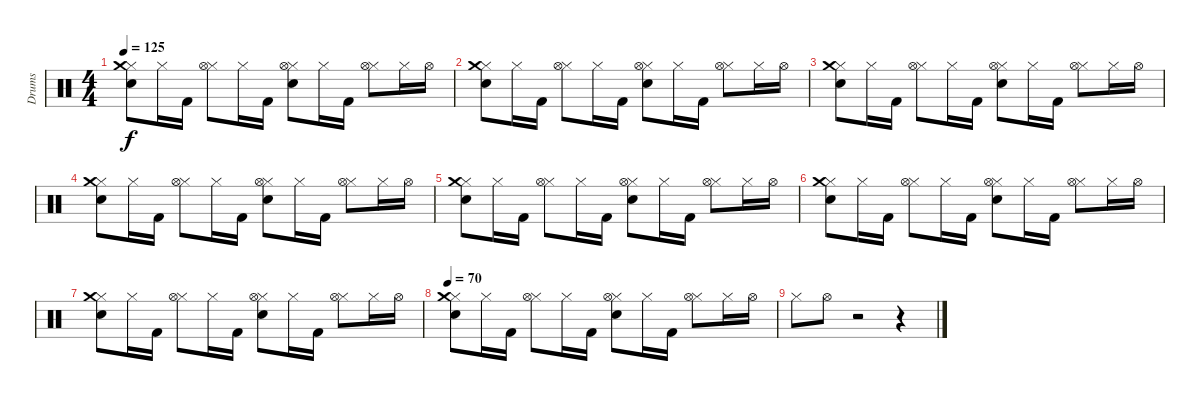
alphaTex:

\track ("Drums" "Drums") {instrument percussion}
\staff {score}
\articulation defaults
\ts (4 4)
\tempo 125
\clef neutral
\ks c
("Hi-Hat (closed)" "Snare (hit) 2" "Crash medium (hit)").8{dy f} "Hi-Hat (closed)".16 "Kick (hit) 2".16 ("Hi-Hat (closed)" "Hi-Hat (open)").8 "Hi-Hat (closed)".16 "Kick (hit) 2".16 ("Hi-Hat (closed)" "Hi-Hat (open)" "Snare (hit) 2").8 "Hi-Hat (closed)".16 "Kick (hit) 2".16 ("Hi-Hat (closed)" "Hi-Hat (open)").8 "Hi-Hat (closed)".16 "Hi-Hat (open)".16 |
("Hi-Hat (closed)" "Snare (hit) 2" "Crash medium (hit)").8 "Hi-Hat (closed)".16 "Kick (hit) 2".16 ("Hi-Hat (closed)" "Hi-Hat (open)").8 "Hi-Hat (closed)".16 "Kick (hit) 2".16 ("Hi-Hat (closed)" "Hi-Hat (open)" "Snare (hit) 2").8 "Hi-Hat (closed)".16 "Kick (hit) 2".16 ("Hi-Hat (closed)" "Hi-Hat (open)").8 "Hi-Hat (closed)".16 "Hi-Hat (open)".16 |
("Hi-Hat (closed)" "Snare (hit) 2" "Crash medium (hit)").8 "Hi-Hat (closed)".16 "Kick (hit) 2".16 ("Hi-Hat (closed)" "Hi-Hat (open)").8 "Hi-Hat (closed)".16 "Kick (hit) 2".16 ("Hi-Hat (closed)" "Hi-Hat (open)" "Snare (hit) 2").8 "Hi-Hat (closed)".16 "Kick (hit) 2".16 ("Hi-Hat (closed)" "Hi-Hat (open)").8 "Hi-Hat (closed)".16 "Hi-Hat (open)".16 |
("Hi-Hat (closed)" "Snare (hit) 2" "Crash medium (hit)").8 "Hi-Hat (closed)".16 "Kick (hit) 2".16 ("Hi-Hat (closed)" "Hi-Hat (open)").8 "Hi-Hat (closed)".16 "Kick (hit) 2".16 ("Hi-Hat (closed)" "Hi-Hat (open)" "Snare (hit) 2").8 "Hi-Hat (closed)".16 "Kick (hit) 2".16 ("Hi-Hat (closed)" "Hi-Hat (open)").8 "Hi-Hat (closed)".16 "Hi-Hat (open)".16 |
("Hi-Hat (closed)" "Snare (hit) 2" "Crash medium (hit)").8 "Hi-Hat (closed)".16 "Kick (hit) 2".16 ("Hi-Hat (closed)" "Hi-Hat (open)").8 "Hi-Hat (closed)".16 "Kick (hit) 2".16 ("Hi-Hat (closed)" "Hi-Hat (open)" "Snare (hit) 2").8 "Hi-Hat (closed)".16 "Kick (hit) 2".16 ("Hi-Hat (closed)" "Hi-Hat (open)").8 "Hi-Hat (closed)".16 "Hi-Hat (open)".16 |
("Hi-Hat (closed)" "Snare (hit) 2" "Crash medium (hit)").8 "Hi-Hat (closed)".16 "Kick (hit) 2".16 ("Hi-Hat (closed)" "Hi-Hat (open)").8 "Hi-Hat (closed)".16 "Kick (hit) 2".16 ("Hi-Hat (closed)" "Hi-Hat (open)" "Snare (hit) 2").8 "Hi-Hat (closed)".16 "Kick (hit) 2".16 ("Hi-Hat (closed)" "Hi-Hat (open)").8 "Hi-Hat (closed)".16 "Hi-Hat (open)".16 |
("Hi-Hat (closed)" "Snare (hit) 2" "Crash medium (hit)").8 "Hi-Hat (closed)".16 "Kick (hit) 2".16 ("Hi-Hat (closed)" "Hi-Hat (open)").8 "Hi-Hat (closed)".16 "Kick (hit) 2".16 ("Hi-Hat (closed)" "Hi-Hat (open)" "Snare (hit) 2").8 "Hi-Hat (closed)".16 "Kick (hit) 2".16 ("Hi-Hat (closed)" "Hi-Hat (open)").8 "Hi-Hat (closed)".16 "Hi-Hat (open)".16 |
\tempo 70
("Hi-Hat (closed)" "Snare (hit) 2" "Crash medium (hit)").8 "Hi-Hat (closed)".16 "Kick (hit) 2".16 ("Hi-Hat (closed)" "Hi-Hat (open)").8 "Hi-Hat (closed)".16 "Kick (hit) 2".16 ("Hi-Hat (closed)" "Hi-Hat (open)" "Snare (hit) 2").8 "Hi-Hat (closed)".16 "Kick (hit) 2".16 ("Hi-Hat (closed)" "Hi-Hat (open)").8 "Hi-Hat (closed)".16 "Hi-Hat (open)".16 |
"Hi-Hat (closed)".8 "Hi-Hat (open)".8 r.2 r.4
